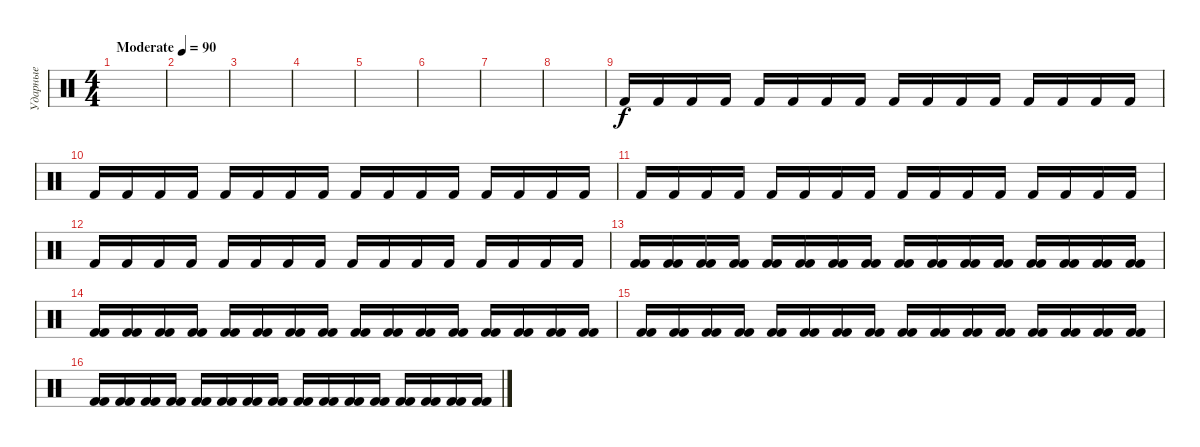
\track ("Ударные" "Ударные") {instrument percussion}
\staff {score}
\articulation defaults
\ts (4 4)
\tempo (90 "Moderate")
\clef neutral
\ks c
|
|
|
|
|
|
|
|
"Kick (hit) 2".16 "Kick (hit) 2".16 "Kick (hit) 2".16 "Kick (hit) 2".16 "Kick (hit) 2".16 "Kick (hit) 2".16 "Kick (hit) 2".16 "Kick (hit) 2".16 "Kick (hit) 2".16 "Kick (hit) 2".16 "Kick (hit) 2".16 "Kick (hit) 2".16 "Kick (hit) 2".16 "Kick (hit) 2".16 "Kick (hit) 2".16 "Kick (hit) 2".16 |
"Kick (hit) 2".16 "Kick (hit) 2".16 "Kick (hit) 2".16 "Kick (hit) 2".16 "Kick (hit) 2".16 "Kick (hit) 2".16 "Kick (hit) 2".16 "Kick (hit) 2".16 "Kick (hit) 2".16 "Kick (hit) 2".16 "Kick (hit) 2".16 "Kick (hit) 2".16 "Kick (hit) 2".16 "Kick (hit) 2".16 "Kick (hit) 2".16 "Kick (hit) 2".16 |
"Kick (hit) 2".16 "Kick (hit) 2".16 "Kick (hit) 2".16 "Kick (hit) 2".16 "Kick (hit) 2".16 "Kick (hit) 2".16 "Kick (hit) 2".16 "Kick (hit) 2".16 "Kick (hit) 2".16 "Kick (hit) 2".16 "Kick (hit) 2".16 "Kick (hit) 2".16 "Kick (hit) 2".16 "Kick (hit) 2".16 "Kick (hit) 2".16 "Kick (hit) 2".16 |
"Kick (hit) 2".16 "Kick (hit) 2".16 "Kick (hit) 2".16 "Kick (hit) 2".16 "Kick (hit) 2".16 "Kick (hit) 2".16 "Kick (hit) 2".16 "Kick (hit) 2".16 "Kick (hit) 2".16 "Kick (hit) 2".16 "Kick (hit) 2".16 "Kick (hit) 2".16 "Kick (hit) 2".16 "Kick (hit) 2".16 "Kick (hit) 2".16 "Kick (hit) 2".16 |
("Kick (hit) 2" "Kick (hit) 2").16 ("Kick (hit) 2" "Kick (hit) 2").16 ("Kick (hit) 2" "Kick (hit) 2").16 ("Kick (hit) 2" "Kick (hit) 2").16 ("Kick (hit) 2" "Kick (hit) 2").16 ("Kick (hit) 2" "Kick (hit) 2").16 ("Kick (hit) 2" "Kick (hit) 2").16 ("Kick (hit) 2" "Kick (hit) 2").16 ("Kick (hit) 2" "Kick (hit) 2").16 ("Kick (hit) 2" "Kick (hit) 2").16 ("Kick (hit) 2" "Kick (hit) 2").16 ("Kick (hit) 2" "Kick (hit) 2").16 ("Kick (hit) 2" "Kick (hit) 2").16 ("Kick (hit) 2" "Kick (hit) 2").16 ("Kick (hit) 2" "Kick (hit) 2").16 ("Kick (hit) 2" "Kick (hit) 2").16 |
("Kick (hit) 2" "Kick (hit) 2").16 ("Kick (hit) 2" "Kick (hit) 2").16 ("Kick (hit) 2" "Kick (hit) 2").16 ("Kick (hit) 2" "Kick (hit) 2").16 ("Kick (hit) 2" "Kick (hit) 2").16 ("Kick (hit) 2" "Kick (hit) 2").16 ("Kick (hit) 2" "Kick (hit) 2").16 ("Kick (hit) 2" "Kick (hit) 2").16 ("Kick (hit) 2" "Kick (hit) 2").16 ("Kick (hit) 2" "Kick (hit) 2").16 ("Kick (hit) 2" "Kick (hit) 2").16 ("Kick (hit) 2" "Kick (hit) 2").16 ("Kick (hit) 2" "Kick (hit) 2").16 ("Kick (hit) 2" "Kick (hit) 2").16 ("Kick (hit) 2" "Kick (hit) 2").16 ("Kick (hit) 2" "Kick (hit) 2").16 |
("Kick (hit) 2" "Kick (hit) 2").16 ("Kick (hit) 2" "Kick (hit) 2").16 ("Kick (hit) 2" "Kick (hit) 2").16 ("Kick (hit) 2" "Kick (hit) 2").16 ("Kick (hit) 2" "Kick (hit) 2").16 ("Kick (hit) 2" "Kick (hit) 2").16 ("Kick (hit) 2" "Kick (hit) 2").16 ("Kick (hit) 2" "Kick (hit) 2").16 ("Kick (hit) 2" "Kick (hit) 2").16 ("Kick (hit) 2" "Kick (hit) 2").16 ("Kick (hit) 2" "Kick (hit) 2").16 ("Kick (hit) 2" "Kick (hit) 2").16 ("Kick (hit) 2" "Kick (hit) 2").16 ("Kick (hit) 2" "Kick (hit) 2").16 ("Kick (hit) 2" "Kick (hit) 2").16 ("Kick (hit) 2" "Kick (hit) 2").16 |
("Kick (hit) 2" "Kick (hit) 2").16 ("Kick (hit) 2" "Kick (hit) 2").16 ("Kick (hit) 2" "Kick (hit) 2").16 ("Kick (hit) 2" "Kick (hit) 2").16 ("Kick (hit) 2" "Kick (hit) 2").16 ("Kick (hit) 2" "Kick (hit) 2").16 ("Kick (hit) 2" "Kick (hit) 2").16 ("Kick (hit) 2" "Kick (hit) 2").16 ("Kick (hit) 2" "Kick (hit) 2").16 ("Kick (hit) 2" "Kick (hit) 2").16 ("Kick (hit) 2" "Kick (hit) 2").16 ("Kick (hit) 2" "Kick (hit) 2").16 ("Kick (hit) 2" "Kick (hit) 2").16 ("Kick (hit) 2" "Kick (hit) 2").16 ("Kick (hit) 2" "Kick (hit) 2").16 ("Kick (hit) 2" "Kick (hit) 2").16
